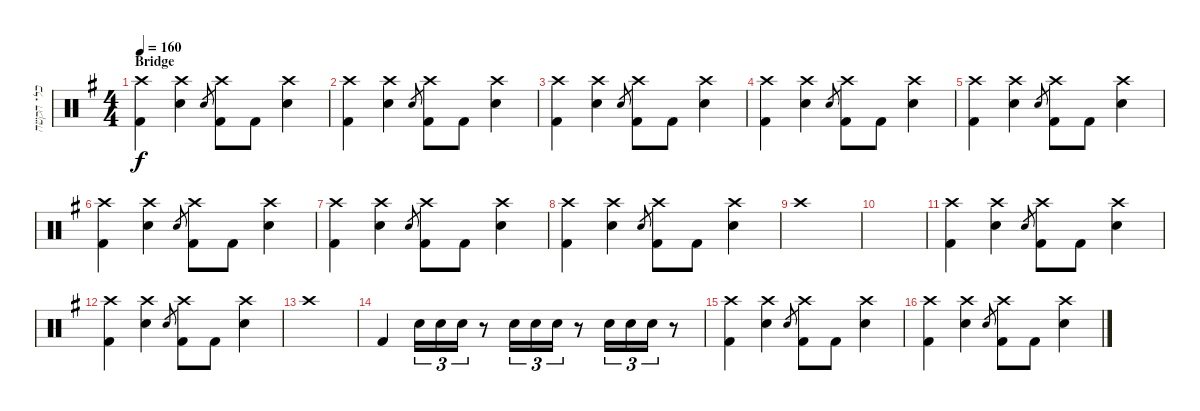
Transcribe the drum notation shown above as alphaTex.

\track ("כלי הקשה" "כלי הקשה") {instrument percussion bank 127}
\staff {score}
\articulation defaults
\ts (4 4)
\section ("" "Bridge")
\tempo 160
\clef neutral
\ks eminor
("Crash high (hit)" "Kick (hit) 2").4{dy f} ("Crash high (hit)" "Electric Snare (hit)").4 "Electric Snare (hit)".8{gr} ("Crash high (hit)" "Kick (hit) 2").8 "Kick (hit) 2".8 ("Crash high (hit)" "Electric Snare (hit)").4 |
("Crash high (hit)" "Kick (hit) 2").4 ("Crash high (hit)" "Electric Snare (hit)").4 "Electric Snare (hit)".8{gr} ("Crash high (hit)" "Kick (hit) 2").8 "Kick (hit) 2".8 ("Crash high (hit)" "Electric Snare (hit)").4 |
("Crash high (hit)" "Kick (hit) 2").4 ("Crash high (hit)" "Electric Snare (hit)").4 "Electric Snare (hit)".8{gr} ("Crash high (hit)" "Kick (hit) 2").8 "Kick (hit) 2".8 ("Crash high (hit)" "Electric Snare (hit)").4 |
("Crash high (hit)" "Kick (hit) 2").4 ("Crash high (hit)" "Electric Snare (hit)").4 "Electric Snare (hit)".8{gr} ("Crash high (hit)" "Kick (hit) 2").8 "Kick (hit) 2".8 ("Crash high (hit)" "Electric Snare (hit)").4 |
("Crash high (hit)" "Kick (hit) 2").4 ("Crash high (hit)" "Electric Snare (hit)").4 "Electric Snare (hit)".8{gr} ("Crash high (hit)" "Kick (hit) 2").8 "Kick (hit) 2".8 ("Crash high (hit)" "Electric Snare (hit)").4 |
("Crash high (hit)" "Kick (hit) 2").4 ("Crash high (hit)" "Electric Snare (hit)").4 "Electric Snare (hit)".8{gr} ("Crash high (hit)" "Kick (hit) 2").8 "Kick (hit) 2".8 ("Crash high (hit)" "Electric Snare (hit)").4 |
("Crash high (hit)" "Kick (hit) 2").4 ("Crash high (hit)" "Electric Snare (hit)").4 "Electric Snare (hit)".8{gr} ("Crash high (hit)" "Kick (hit) 2").8 "Kick (hit) 2".8 ("Crash high (hit)" "Electric Snare (hit)").4 |
("Crash high (hit)" "Kick (hit) 2").4 ("Crash high (hit)" "Electric Snare (hit)").4 "Electric Snare (hit)".8{gr} ("Crash high (hit)" "Kick (hit) 2").8 "Kick (hit) 2".8 ("Crash high (hit)" "Electric Snare (hit)").4 |
"Crash high (hit)".1 |
|
("Crash high (hit)" "Kick (hit) 2").4 ("Crash high (hit)" "Electric Snare (hit)").4 "Electric Snare (hit)".8{gr} ("Crash high (hit)" "Kick (hit) 2").8 "Kick (hit) 2".8 ("Crash high (hit)" "Electric Snare (hit)").4 |
("Crash high (hit)" "Kick (hit) 2").4 ("Crash high (hit)" "Electric Snare (hit)").4 "Electric Snare (hit)".8{gr} ("Crash high (hit)" "Kick (hit) 2").8 "Kick (hit) 2".8 ("Crash high (hit)" "Electric Snare (hit)").4 |
"Crash high (hit)".1 |
"Kick (hit) 2".4 "Electric Snare (hit)".16{tu (3 2)} "Electric Snare (hit)".16{tu (3 2)} "Electric Snare (hit)".16{tu (3 2)} r.8 "Electric Snare (hit)".16{tu (3 2)} "Electric Snare (hit)".16{tu (3 2)} "Electric Snare (hit)".16{tu (3 2)} r.8 "Electric Snare (hit)".16{tu (3 2)} "Electric Snare (hit)".16{tu (3 2)} "Electric Snare (hit)".16{tu (3 2)} r.8 |
("Crash high (hit)" "Kick (hit) 2").4 ("Crash high (hit)" "Electric Snare (hit)").4 "Electric Snare (hit)".8{gr} ("Crash high (hit)" "Kick (hit) 2").8 "Kick (hit) 2".8 ("Crash high (hit)" "Electric Snare (hit)").4 |
("Crash high (hit)" "Kick (hit) 2").4 ("Crash high (hit)" "Electric Snare (hit)").4 "Electric Snare (hit)".8{gr} ("Crash high (hit)" "Kick (hit) 2").8 "Kick (hit) 2".8 ("Crash high (hit)" "Electric Snare (hit)").4
